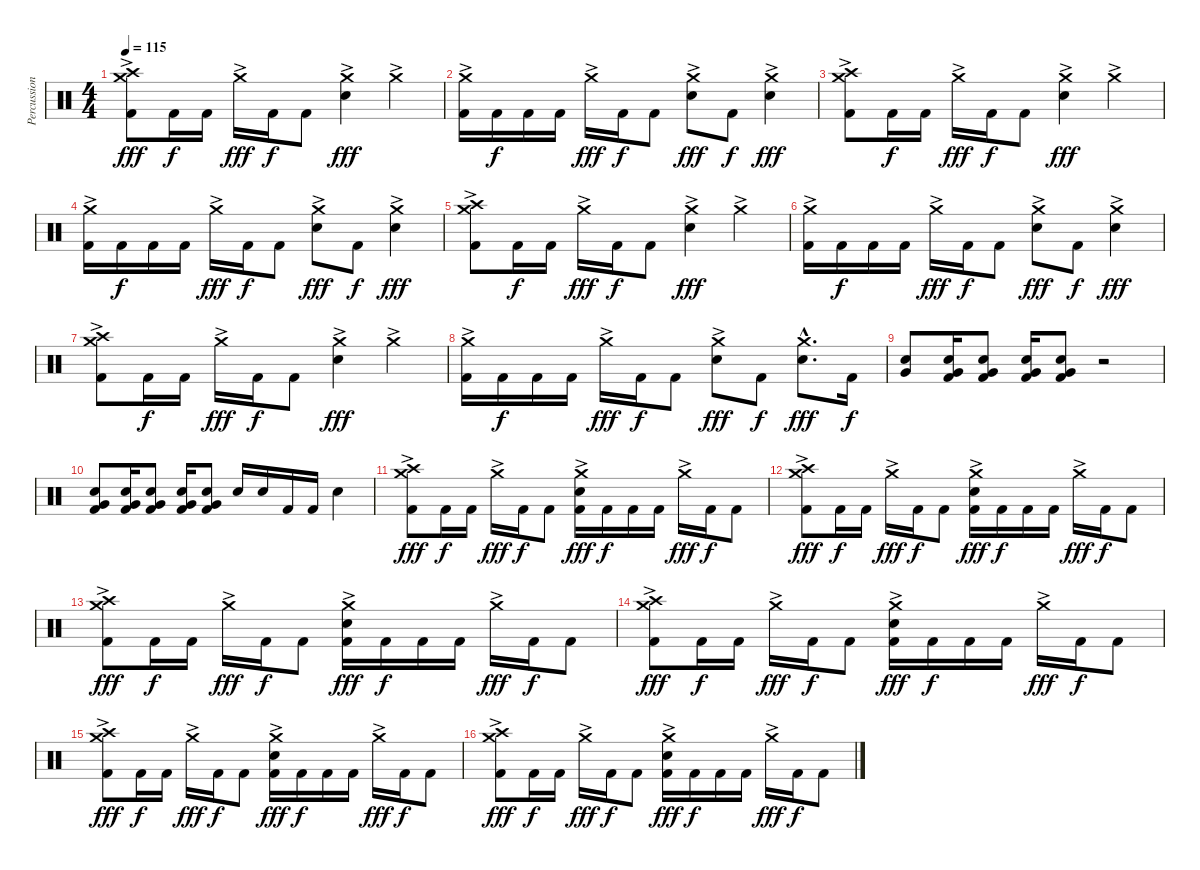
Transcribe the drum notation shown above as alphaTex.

\track ("Percussion" "Percussion") {instrument percussion}
\staff {score}
\articulation defaults
\ts (4 4)
\tempo 115
\clef neutral
\ks c
("Crash high (hit)"{ac} "Crash medium (hit)"{ac} "Kick (hit) 2").8{dy fff} "Kick (hit) 2".16{dy f} "Kick (hit) 2".16 "Crash medium (hit)"{ac}.16{dy fff} "Kick (hit) 2".16{dy f} "Kick (hit) 2".8 ("Crash medium (hit)"{ac} "Electric Snare (hit)").4{dy fff} "Crash medium (hit)"{ac}.4 |
("Crash medium (hit)"{ac} "Kick (hit) 2").16 "Kick (hit) 2".16{dy f} "Kick (hit) 2".16 "Kick (hit) 2".16 "Crash medium (hit)"{ac}.16{dy fff} "Kick (hit) 2".16{dy f} "Kick (hit) 2".8 ("Crash medium (hit)"{ac} "Electric Snare (hit)").8{dy fff} "Kick (hit) 2".8{dy f} ("Crash medium (hit)"{ac} "Electric Snare (hit)").4{dy fff} |
("Crash high (hit)"{ac} "Crash medium (hit)"{ac} "Kick (hit) 2").8 "Kick (hit) 2".16{dy f} "Kick (hit) 2".16 "Crash medium (hit)"{ac}.16{dy fff} "Kick (hit) 2".16{dy f} "Kick (hit) 2".8 ("Crash medium (hit)"{ac} "Electric Snare (hit)").4{dy fff} "Crash medium (hit)"{ac}.4 |
("Crash medium (hit)"{ac} "Kick (hit) 2").16 "Kick (hit) 2".16{dy f} "Kick (hit) 2".16 "Kick (hit) 2".16 "Crash medium (hit)"{ac}.16{dy fff} "Kick (hit) 2".16{dy f} "Kick (hit) 2".8 ("Crash medium (hit)"{ac} "Electric Snare (hit)").8{dy fff} "Kick (hit) 2".8{dy f} ("Crash medium (hit)"{ac} "Electric Snare (hit)").4{dy fff} |
("Crash high (hit)"{ac} "Crash medium (hit)"{ac} "Kick (hit) 2").8 "Kick (hit) 2".16{dy f} "Kick (hit) 2".16 "Crash medium (hit)"{ac}.16{dy fff} "Kick (hit) 2".16{dy f} "Kick (hit) 2".8 ("Crash medium (hit)"{ac} "Electric Snare (hit)").4{dy fff} "Crash medium (hit)"{ac}.4 |
("Crash medium (hit)"{ac} "Kick (hit) 2").16 "Kick (hit) 2".16{dy f} "Kick (hit) 2".16 "Kick (hit) 2".16 "Crash medium (hit)"{ac}.16{dy fff} "Kick (hit) 2".16{dy f} "Kick (hit) 2".8 ("Crash medium (hit)"{ac} "Electric Snare (hit)").8{dy fff} "Kick (hit) 2".8{dy f} ("Crash medium (hit)"{ac} "Electric Snare (hit)").4{dy fff} |
("Crash high (hit)"{ac} "Crash medium (hit)"{ac} "Kick (hit) 2").8 "Kick (hit) 2".16{dy f} "Kick (hit) 2".16 "Crash medium (hit)"{ac}.16{dy fff} "Kick (hit) 2".16{dy f} "Kick (hit) 2".8 ("Crash medium (hit)"{ac} "Electric Snare (hit)").4{dy fff} "Crash medium (hit)"{ac}.4 |
("Crash medium (hit)"{ac} "Kick (hit) 2").16 "Kick (hit) 2".16{dy f} "Kick (hit) 2".16 "Kick (hit) 2".16 "Crash medium (hit)"{ac}.16{dy fff} "Kick (hit) 2".16{dy f} "Kick (hit) 2".8 ("Crash medium (hit)"{ac} "Electric Snare (hit)").8{dy fff} "Kick (hit) 2".8{dy f} ("Crash medium (hit)"{hac} "Electric Snare (hit)"{hac}).8{d dy fff} "Kick (hit) 2".16{dy f} |
("Very Low Tom (hit)" "Electric Snare (hit)").8 ("Very Low Tom (hit)" "Electric Snare (hit)" "Kick (hit) 2").16 ("Very Low Tom (hit)" "Electric Snare (hit)" "Kick (hit) 2").8 ("Very Low Tom (hit)" "Electric Snare (hit)" "Kick (hit) 2").16 ("Very Low Tom (hit)" "Electric Snare (hit)" "Kick (hit) 2").8 r.2 |
("Very Low Tom (hit)" "Electric Snare (hit)" "Kick (hit) 2").8 ("Very Low Tom (hit)" "Electric Snare (hit)" "Kick (hit) 2").16 ("Very Low Tom (hit)" "Electric Snare (hit)" "Kick (hit) 2").8 ("Very Low Tom (hit)" "Electric Snare (hit)" "Kick (hit) 2").16 ("Very Low Tom (hit)" "Electric Snare (hit)" "Kick (hit) 2").8 "Electric Snare (hit)".16 "Electric Snare (hit)".16 "Kick (hit) 2".16 "Kick (hit) 2".16 "Electric Snare (hit)".4 |
("Crash high (hit)"{ac} "Crash medium (hit)"{ac} "Kick (hit) 2").8{dy fff} "Kick (hit) 2".16{dy f} "Kick (hit) 2".16 "Crash medium (hit)"{ac}.16{dy fff} "Kick (hit) 2".16{dy f} "Kick (hit) 2".8 ("Crash medium (hit)"{ac} "Electric Snare (hit)" "Kick (hit) 2").16{dy fff} "Kick (hit) 2".16{dy f} "Kick (hit) 2".16 "Kick (hit) 2".16 "Crash medium (hit)"{ac}.16{dy fff} "Kick (hit) 2".16{dy f} "Kick (hit) 2".8 |
("Crash high (hit)"{ac} "Crash medium (hit)"{ac} "Kick (hit) 2").8{dy fff} "Kick (hit) 2".16{dy f} "Kick (hit) 2".16 "Crash medium (hit)"{ac}.16{dy fff} "Kick (hit) 2".16{dy f} "Kick (hit) 2".8 ("Crash medium (hit)"{ac} "Electric Snare (hit)" "Kick (hit) 2").16{dy fff} "Kick (hit) 2".16{dy f} "Kick (hit) 2".16 "Kick (hit) 2".16 "Crash medium (hit)"{ac}.16{dy fff} "Kick (hit) 2".16{dy f} "Kick (hit) 2".8 |
("Crash high (hit)"{ac} "Crash medium (hit)"{ac} "Kick (hit) 2").8{dy fff} "Kick (hit) 2".16{dy f} "Kick (hit) 2".16 "Crash medium (hit)"{ac}.16{dy fff} "Kick (hit) 2".16{dy f} "Kick (hit) 2".8 ("Crash medium (hit)"{ac} "Electric Snare (hit)" "Kick (hit) 2").16{dy fff} "Kick (hit) 2".16{dy f} "Kick (hit) 2".16 "Kick (hit) 2".16 "Crash medium (hit)"{ac}.16{dy fff} "Kick (hit) 2".16{dy f} "Kick (hit) 2".8 |
("Crash high (hit)"{ac} "Crash medium (hit)"{ac} "Kick (hit) 2").8{dy fff} "Kick (hit) 2".16{dy f} "Kick (hit) 2".16 "Crash medium (hit)"{ac}.16{dy fff} "Kick (hit) 2".16{dy f} "Kick (hit) 2".8 ("Crash medium (hit)"{ac} "Electric Snare (hit)" "Kick (hit) 2").16{dy fff} "Kick (hit) 2".16{dy f} "Kick (hit) 2".16 "Kick (hit) 2".16 "Crash medium (hit)"{ac}.16{dy fff} "Kick (hit) 2".16{dy f} "Kick (hit) 2".8 |
("Crash high (hit)"{ac} "Crash medium (hit)"{ac} "Kick (hit) 2").8{dy fff} "Kick (hit) 2".16{dy f} "Kick (hit) 2".16 "Crash medium (hit)"{ac}.16{dy fff} "Kick (hit) 2".16{dy f} "Kick (hit) 2".8 ("Crash medium (hit)"{ac} "Electric Snare (hit)" "Kick (hit) 2").16{dy fff} "Kick (hit) 2".16{dy f} "Kick (hit) 2".16 "Kick (hit) 2".16 "Crash medium (hit)"{ac}.16{dy fff} "Kick (hit) 2".16{dy f} "Kick (hit) 2".8 |
("Crash high (hit)"{ac} "Crash medium (hit)"{ac} "Kick (hit) 2").8{dy fff} "Kick (hit) 2".16{dy f} "Kick (hit) 2".16 "Crash medium (hit)"{ac}.16{dy fff} "Kick (hit) 2".16{dy f} "Kick (hit) 2".8 ("Crash medium (hit)"{ac} "Electric Snare (hit)" "Kick (hit) 2").16{dy fff} "Kick (hit) 2".16{dy f} "Kick (hit) 2".16 "Kick (hit) 2".16 "Crash medium (hit)"{ac}.16{dy fff} "Kick (hit) 2".16{dy f} "Kick (hit) 2".8
